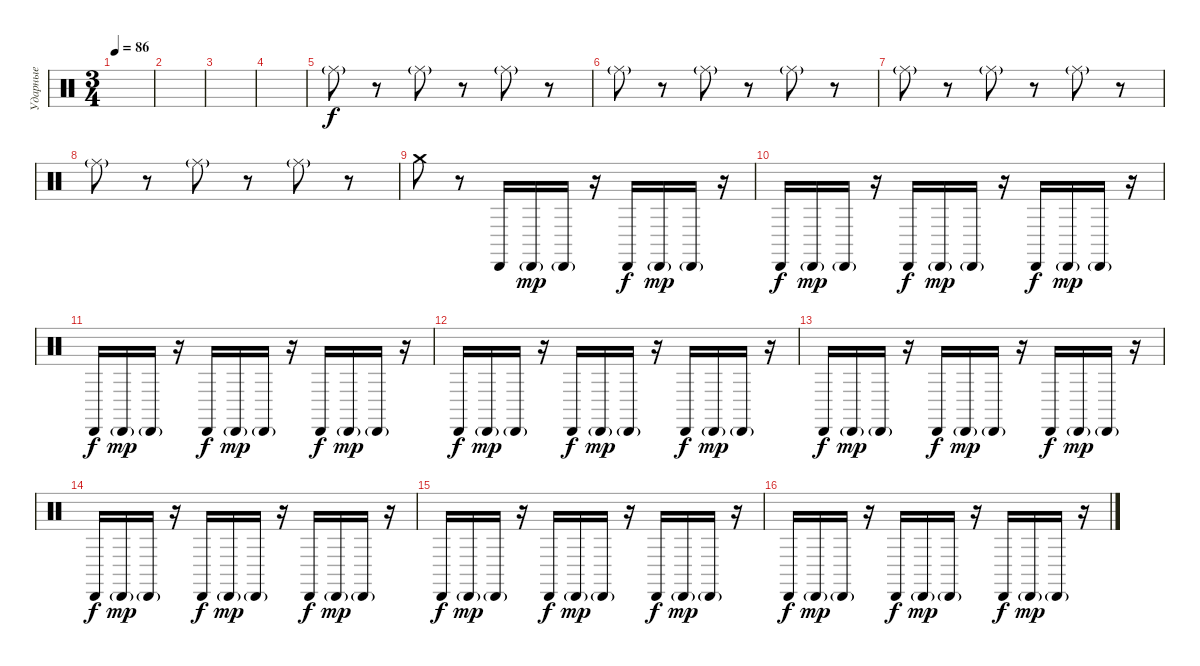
\track ("Ударные" "Ударные") {instrument percussion}
\staff {score}
\articulation defaults
\ts (3 4)
\tempo 86
\clef neutral
\ks c
|
|
|
|
"Ride (middle)"{g}.8 r.8 "Ride (middle)"{g}.8 r.8 "Ride (middle)"{g}.8 r.8 |
"Ride (middle)"{g}.8 r.8 "Ride (middle)"{g}.8 r.8 "Ride (middle)"{g}.8 r.8 |
"Ride (middle)"{g}.8 r.8 "Ride (middle)"{g}.8 r.8 "Ride (middle)"{g}.8 r.8 |
"Ride (middle)"{g}.8 r.8 "Ride (middle)"{g}.8 r.8 "Ride (middle)"{g}.8 r.8 |
"Crash medium (hit)".8{dy f} r.8 "Cabasa (hit)".16 "Cabasa (hit)"{g}.16{dy mp} "Cabasa (hit)"{g}.16 r.16 "Cabasa (hit)".16{dy f} "Cabasa (hit)"{g}.16{dy mp} "Cabasa (hit)"{g}.16 r.16 |
"Cabasa (hit)".16{dy f} "Cabasa (hit)"{g}.16{dy mp} "Cabasa (hit)"{g}.16 r.16 "Cabasa (hit)".16{dy f} "Cabasa (hit)"{g}.16{dy mp} "Cabasa (hit)"{g}.16 r.16 "Cabasa (hit)".16{dy f} "Cabasa (hit)"{g}.16{dy mp} "Cabasa (hit)"{g}.16 r.16 |
"Cabasa (hit)".16{dy f} "Cabasa (hit)"{g}.16{dy mp} "Cabasa (hit)"{g}.16 r.16 "Cabasa (hit)".16{dy f} "Cabasa (hit)"{g}.16{dy mp} "Cabasa (hit)"{g}.16 r.16 "Cabasa (hit)".16{dy f} "Cabasa (hit)"{g}.16{dy mp} "Cabasa (hit)"{g}.16 r.16 |
"Cabasa (hit)".16{dy f} "Cabasa (hit)"{g}.16{dy mp} "Cabasa (hit)"{g}.16 r.16 "Cabasa (hit)".16{dy f} "Cabasa (hit)"{g}.16{dy mp} "Cabasa (hit)"{g}.16 r.16 "Cabasa (hit)".16{dy f} "Cabasa (hit)"{g}.16{dy mp} "Cabasa (hit)"{g}.16 r.16 |
"Cabasa (hit)".16{dy f} "Cabasa (hit)"{g}.16{dy mp} "Cabasa (hit)"{g}.16 r.16 "Cabasa (hit)".16{dy f} "Cabasa (hit)"{g}.16{dy mp} "Cabasa (hit)"{g}.16 r.16 "Cabasa (hit)".16{dy f} "Cabasa (hit)"{g}.16{dy mp} "Cabasa (hit)"{g}.16 r.16 |
"Cabasa (hit)".16{dy f} "Cabasa (hit)"{g}.16{dy mp} "Cabasa (hit)"{g}.16 r.16 "Cabasa (hit)".16{dy f} "Cabasa (hit)"{g}.16{dy mp} "Cabasa (hit)"{g}.16 r.16 "Cabasa (hit)".16{dy f} "Cabasa (hit)"{g}.16{dy mp} "Cabasa (hit)"{g}.16 r.16 |
"Cabasa (hit)".16{dy f} "Cabasa (hit)"{g}.16{dy mp} "Cabasa (hit)"{g}.16 r.16 "Cabasa (hit)".16{dy f} "Cabasa (hit)"{g}.16{dy mp} "Cabasa (hit)"{g}.16 r.16 "Cabasa (hit)".16{dy f} "Cabasa (hit)"{g}.16{dy mp} "Cabasa (hit)"{g}.16 r.16 |
"Cabasa (hit)".16{dy f} "Cabasa (hit)"{g}.16{dy mp} "Cabasa (hit)"{g}.16 r.16 "Cabasa (hit)".16{dy f} "Cabasa (hit)"{g}.16{dy mp} "Cabasa (hit)"{g}.16 r.16 "Cabasa (hit)".16{dy f} "Cabasa (hit)"{g}.16{dy mp} "Cabasa (hit)"{g}.16 r.16
